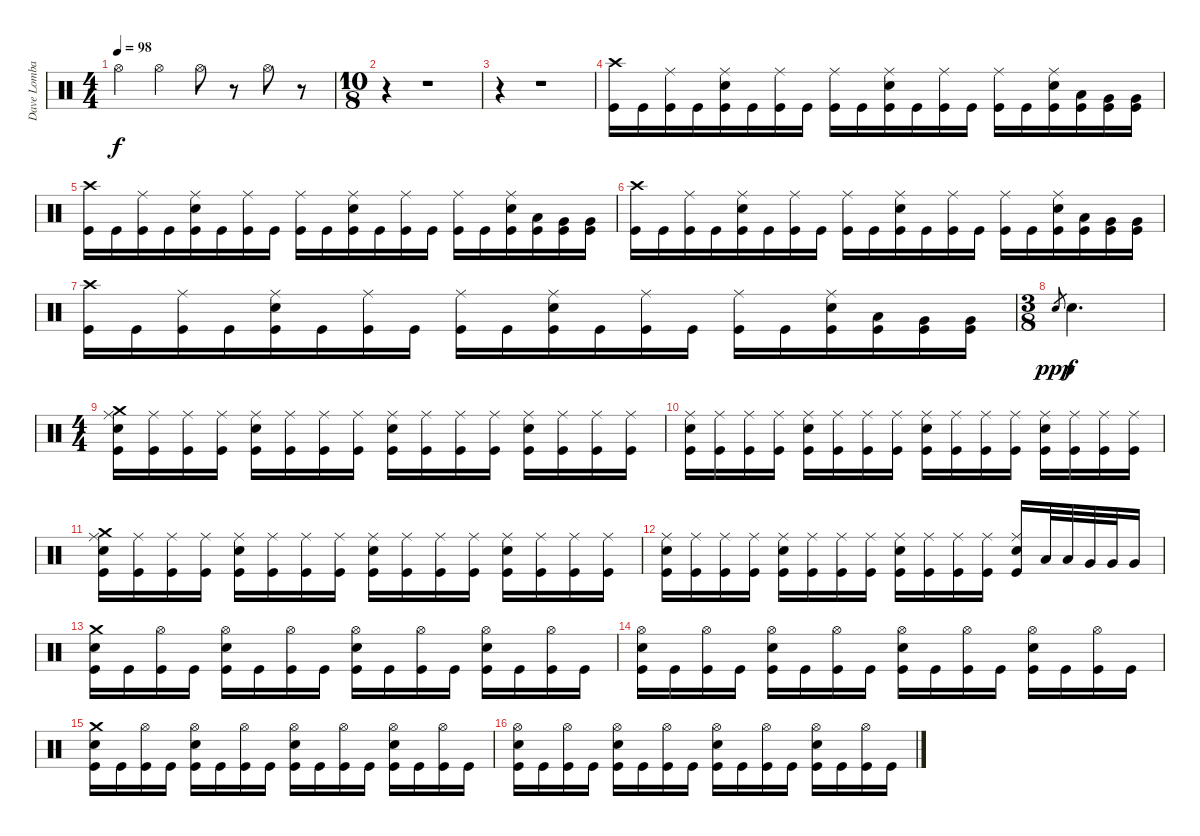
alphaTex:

\track ("Dave Lombardo (Drum)" "Dave Lomba") {instrument percussion}
\staff {score}
\articulation defaults
\ts (4 4)
\tempo 98
\clef neutral
\ks c "Hi-Hat (open)".4{dy f} "Hi-Hat (open)".4 "Hi-Hat (open)".8
r.8 "Hi-Hat (open)".8 r.8 |
\ts (10 8)
r.4 r.1 |
r.4 r.1 |
("Crash high (hit)" "Kick (hit)").16 "Kick (hit)".16 ("Ride (middle)" "Kick (hit)").16 "Kick (hit)".16 ("Snare (hit) 2" "Ride (middle)" "Kick (hit)").16 "Kick (hit)".16 ("Ride (middle)" "Kick (hit)").16 "Kick (hit)".16 ("Ride (middle)" "Kick (hit)").16 "Kick (hit)".16 ("Snare (hit) 2" "Ride (middle)" "Kick (hit)").16 "Kick (hit)".16 ("Ride (middle)" "Kick (hit)").16 "Kick (hit)".16 ("Ride (middle)" "Kick (hit)").16 "Kick (hit)".16 ("Snare (hit) 2" "Ride (middle)" "Kick (hit)").16 ("Low Tom (hit)" "Kick (hit)").16 ("Very Low Tom (hit)" "Kick (hit)").16 ("Very Low Tom (hit)" "Kick (hit)").16 |
("Crash high (hit)" "Kick (hit)").16 "Kick (hit)".16 ("Ride (middle)" "Kick (hit)").16 "Kick (hit)".16 ("Snare (hit) 2" "Ride (middle)" "Kick (hit)").16 "Kick (hit)".16 ("Ride (middle)" "Kick (hit)").16 "Kick (hit)".16 ("Ride (middle)" "Kick (hit)").16 "Kick (hit)".16 ("Snare (hit) 2" "Ride (middle)" "Kick (hit)").16 "Kick (hit)".16 ("Ride (middle)" "Kick (hit)").16 "Kick (hit)".16 ("Ride (middle)" "Kick (hit)").16 "Kick (hit)".16 ("Snare (hit) 2" "Ride (middle)" "Kick (hit)").16 ("Low Tom (hit)" "Kick (hit)").16 ("Very Low Tom (hit)" "Kick (hit)").16 ("Very Low Tom (hit)" "Kick (hit)").16 |
("Crash high (hit)" "Kick (hit)").16 "Kick (hit)".16 ("Ride (middle)" "Kick (hit)").16 "Kick (hit)".16 ("Snare (hit) 2" "Ride (middle)" "Kick (hit)").16 "Kick (hit)".16 ("Ride (middle)" "Kick (hit)").16 "Kick (hit)".16 ("Ride (middle)" "Kick (hit)").16 "Kick (hit)".16 ("Snare (hit) 2" "Ride (middle)" "Kick (hit)").16 "Kick (hit)".16 ("Ride (middle)" "Kick (hit)").16 "Kick (hit)".16 ("Ride (middle)" "Kick (hit)").16 "Kick (hit)".16 ("Snare (hit) 2" "Ride (middle)" "Kick (hit)").16 ("Low Tom (hit)" "Kick (hit)").16 ("Very Low Tom (hit)" "Kick (hit)").16 ("Very Low Tom (hit)" "Kick (hit)").16 |
("Crash high (hit)" "Kick (hit)").16 "Kick (hit)".16 ("Ride (middle)" "Kick (hit)").16 "Kick (hit)".16 ("Snare (hit) 2" "Ride (middle)" "Kick (hit)").16 "Kick (hit)".16 ("Ride (middle)" "Kick (hit)").16 "Kick (hit)".16 ("Ride (middle)" "Kick (hit)").16 "Kick (hit)".16 ("Snare (hit) 2" "Ride (middle)" "Kick (hit)").16 "Kick (hit)".16 ("Ride (middle)" "Kick (hit)").16 "Kick (hit)".16 ("Ride (middle)" "Kick (hit)").16 "Kick (hit)".16 ("Snare (hit) 2" "Ride (middle)" "Kick (hit)").16 ("Low Tom (hit)" "Kick (hit)").16 ("Very Low Tom (hit)" "Kick (hit)").16 ("Very Low Tom (hit)" "Kick (hit)").16 |
\ts (3 8)
"Snare (hit)".8{gr dy ppp} "Snare (hit) 2".4{d dy f} |
\ts (4 4)
("Crash medium (hit)" "Snare (hit) 2" "Ride (middle)" "Kick (hit)").16 ("Ride (middle)" "Kick (hit)").16 ("Ride (middle)" "Kick (hit)").16 ("Ride (middle)" "Kick (hit)").16 ("Snare (hit) 2" "Ride (middle)" "Kick (hit)").16 ("Ride (middle)" "Kick (hit)").16 ("Ride (middle)" "Kick (hit)").16 ("Ride (middle)" "Kick (hit)").16 ("Snare (hit) 2" "Ride (middle)" "Kick (hit)").16 ("Ride (middle)" "Kick (hit)").16 ("Ride (middle)" "Kick (hit)").16 ("Ride (middle)" "Kick (hit)").16 ("Snare (hit) 2" "Ride (middle)" "Kick (hit)").16 ("Ride (middle)" "Kick (hit)").16 ("Ride (middle)" "Kick (hit)").16 ("Ride (middle)" "Kick (hit)").16 |
("Snare (hit) 2" "Ride (middle)" "Kick (hit)").16 ("Ride (middle)" "Kick (hit)").16 ("Ride (middle)" "Kick (hit)").16 ("Ride (middle)" "Kick (hit)").16 ("Snare (hit) 2" "Ride (middle)" "Kick (hit)").16 ("Ride (middle)" "Kick (hit)").16 ("Ride (middle)" "Kick (hit)").16 ("Ride (middle)" "Kick (hit)").16 ("Snare (hit) 2" "Ride (middle)" "Kick (hit)").16 ("Ride (middle)" "Kick (hit)").16 ("Ride (middle)" "Kick (hit)").16 ("Ride (middle)" "Kick (hit)").16 ("Snare (hit) 2" "Ride (middle)" "Kick (hit)").16 ("Ride (middle)" "Kick (hit)").16 ("Ride (middle)" "Kick (hit)").16 ("Ride (middle)" "Kick (hit)").16 |
("Crash medium (hit)" "Snare (hit) 2" "Ride (middle)" "Kick (hit)").16 ("Ride (middle)" "Kick (hit)").16 ("Ride (middle)" "Kick (hit)").16 ("Ride (middle)" "Kick (hit)").16 ("Snare (hit) 2" "Ride (middle)" "Kick (hit)").16 ("Ride (middle)" "Kick (hit)").16 ("Ride (middle)" "Kick (hit)").16 ("Ride (middle)" "Kick (hit)").16 ("Snare (hit) 2" "Ride (middle)" "Kick (hit)").16 ("Ride (middle)" "Kick (hit)").16 ("Ride (middle)" "Kick (hit)").16 ("Ride (middle)" "Kick (hit)").16 ("Snare (hit) 2" "Ride (middle)" "Kick (hit)").16 ("Ride (middle)" "Kick (hit)").16 ("Ride (middle)" "Kick (hit)").16 ("Ride (middle)" "Kick (hit)").16 |
("Snare (hit) 2" "Ride (middle)" "Kick (hit)").16 ("Ride (middle)" "Kick (hit)").16 ("Ride (middle)" "Kick (hit)").16 ("Ride (middle)" "Kick (hit)").16 ("Snare (hit) 2" "Ride (middle)" "Kick (hit)").16 ("Ride (middle)" "Kick (hit)").16 ("Ride (middle)" "Kick (hit)").16 ("Ride (middle)" "Kick (hit)").16 ("Snare (hit) 2" "Ride (middle)" "Kick (hit)").16 ("Ride (middle)" "Kick (hit)").16 ("Ride (middle)" "Kick (hit)").16 ("Ride (middle)" "Kick (hit)").16 ("Snare (hit) 2" "Ride (middle)" "Kick (hit)").16 "Low Tom (hit)".32 "Low Tom (hit)".32 "Very Low Tom (hit)".32 "Very Low Tom (hit)".32 "Very Low Tom (hit)".16 |
("Snare (hit) 2" "Crash medium (hit)" "Kick (hit)").16 "Kick (hit)".16 ("Hi-Hat (open)" "Kick (hit)").16 "Kick (hit)".16 ("Snare (hit) 2" "Hi-Hat (open)" "Kick (hit)").16 "Kick (hit)".16 ("Hi-Hat (open)" "Kick (hit)").16 "Kick (hit)".16 ("Snare (hit) 2" "Hi-Hat (open)" "Kick (hit)").16 "Kick (hit)".16 ("Hi-Hat (open)" "Kick (hit)").16 "Kick (hit)".16 ("Snare (hit) 2" "Hi-Hat (open)" "Kick (hit)").16 "Kick (hit)".16 ("Hi-Hat (open)" "Kick (hit)").16 "Kick (hit)".16 |
("Snare (hit) 2" "Hi-Hat (open)" "Kick (hit)").16 "Kick (hit)".16 ("Hi-Hat (open)" "Kick (hit)").16 "Kick (hit)".16 ("Snare (hit) 2" "Hi-Hat (open)" "Kick (hit)").16 "Kick (hit)".16 ("Hi-Hat (open)" "Kick (hit)").16 "Kick (hit)".16 ("Snare (hit) 2" "Hi-Hat (open)" "Kick (hit)").16 "Kick (hit)".16 ("Hi-Hat (open)" "Kick (hit)").16 "Kick (hit)".16 ("Snare (hit) 2" "Hi-Hat (open)" "Kick (hit)").16 "Kick (hit)".16 ("Hi-Hat (open)" "Kick (hit)").16 "Kick (hit)".16 |
("Snare (hit) 2" "Crash medium (hit)" "Kick (hit)").16 "Kick (hit)".16 ("Hi-Hat (open)" "Kick (hit)").16 "Kick (hit)".16 ("Snare (hit) 2" "Hi-Hat (open)" "Kick (hit)").16 "Kick (hit)".16 ("Hi-Hat (open)" "Kick (hit)").16 "Kick (hit)".16 ("Snare (hit) 2" "Hi-Hat (open)" "Kick (hit)").16 "Kick (hit)".16 ("Hi-Hat (open)" "Kick (hit)").16 "Kick (hit)".16 ("Snare (hit) 2" "Hi-Hat (open)" "Kick (hit)").16 "Kick (hit)".16 ("Hi-Hat (open)" "Kick (hit)").16 "Kick (hit)".16 |
("Snare (hit) 2" "Hi-Hat (open)" "Kick (hit)").16 "Kick (hit)".16 ("Hi-Hat (open)" "Kick (hit)").16 "Kick (hit)".16 ("Snare (hit) 2" "Hi-Hat (open)" "Kick (hit)").16 "Kick (hit)".16 ("Hi-Hat (open)" "Kick (hit)").16 "Kick (hit)".16 ("Snare (hit) 2" "Hi-Hat (open)" "Kick (hit)").16 "Kick (hit)".16 ("Hi-Hat (open)" "Kick (hit)").16 "Kick (hit)".16 ("Snare (hit) 2" "Hi-Hat (open)" "Kick (hit)").16 "Kick (hit)".16 ("Hi-Hat (open)" "Kick (hit)").16 "Kick (hit)".16
